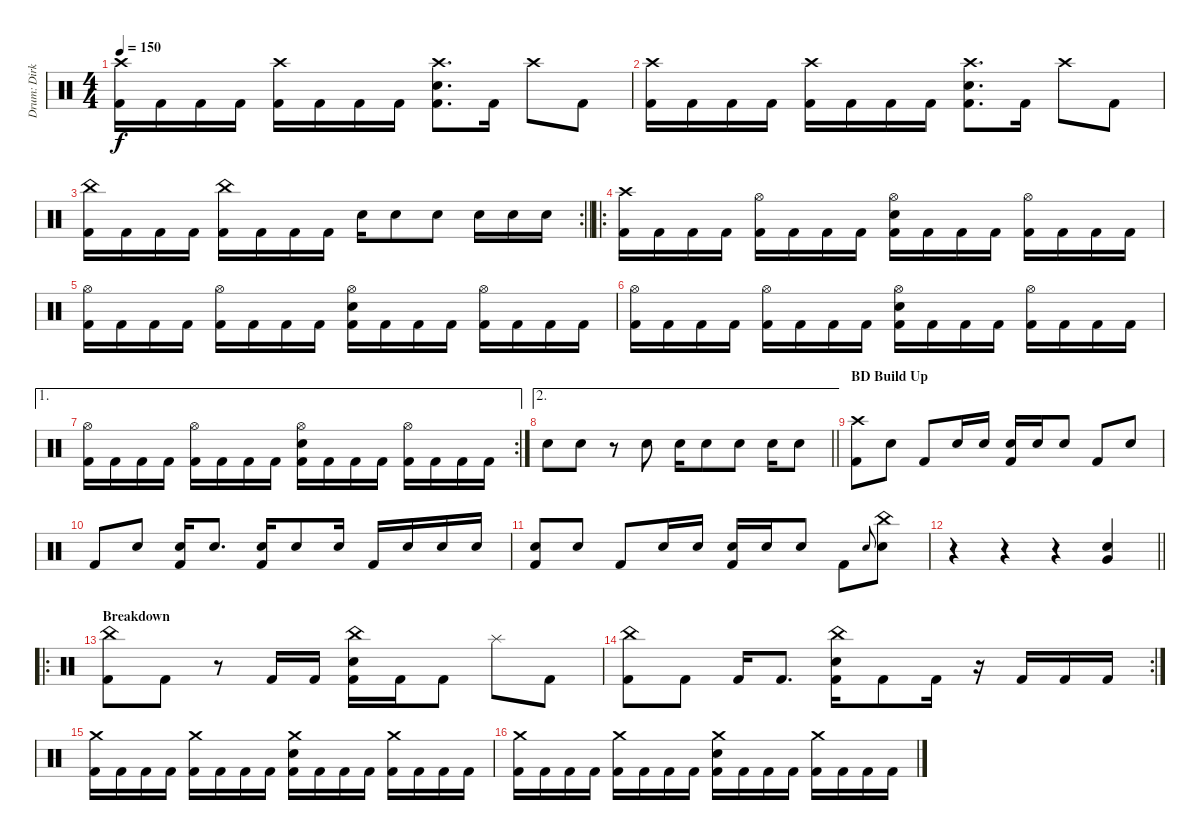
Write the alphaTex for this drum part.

\track ("Drum: Dirk" "Drum: Dirk") {instrument percussion}
\staff {score}
\articulation defaults
\ts (4 4)
\tempo 150
\clef neutral
\ks c
("Crash high (hit)" "Kick (hit) 2").16{dy f} "Kick (hit) 2".16 "Kick (hit) 2".16 "Kick (hit) 2".16 ("Crash high (hit)" "Kick (hit) 2").16 "Kick (hit) 2".16 "Kick (hit) 2".16 "Kick (hit) 2".16 ("Crash high (hit)" "Electric Snare (hit)" "Kick (hit) 2").8{d} "Kick (hit) 2".16 "Crash high (hit)".8 "Kick (hit) 2".8 |
("Crash high (hit)" "Kick (hit) 2").16 "Kick (hit) 2".16 "Kick (hit) 2".16 "Kick (hit) 2".16 ("Crash high (hit)" "Kick (hit) 2").16 "Kick (hit) 2".16 "Kick (hit) 2".16 "Kick (hit) 2".16 ("Crash high (hit)" "Electric Snare (hit)" "Kick (hit) 2").8{d} "Kick (hit) 2".16 "Crash high (hit)".8 "Kick (hit) 2".8 |
\rc 2
\barLineRight lightlight
("China (hit)" "Kick (hit) 2").16 "Kick (hit) 2".16 "Kick (hit) 2".16 "Kick (hit) 2".16 ("China (hit)" "Kick (hit) 2").16 "Kick (hit) 2".16 "Kick (hit) 2".16 "Kick (hit) 2".16 "Electric Snare (hit)".16 "Electric Snare (hit)".8 "Electric Snare (hit)".8 "Electric Snare (hit)".16 "Electric Snare (hit)".16 "Electric Snare (hit)".16 |
\ro
\section ("" "")
("Crash high (hit)" "Kick (hit) 2").16 "Kick (hit) 2".16 "Kick (hit) 2".16 "Kick (hit) 2".16 ("Hi-Hat (open)" "Kick (hit) 2").16 "Kick (hit) 2".16 "Kick (hit) 2".16 "Kick (hit) 2".16 ("Hi-Hat (open)" "Electric Snare (hit)" "Kick (hit) 2").16 "Kick (hit) 2".16 "Kick (hit) 2".16 "Kick (hit) 2".16 ("Hi-Hat (open)" "Kick (hit) 2").16 "Kick (hit) 2".16 "Kick (hit) 2".16 "Kick (hit) 2".16 |
("Hi-Hat (open)" "Kick (hit) 2").16 "Kick (hit) 2".16 "Kick (hit) 2".16 "Kick (hit) 2".16 ("Hi-Hat (open)" "Kick (hit) 2").16 "Kick (hit) 2".16 "Kick (hit) 2".16 "Kick (hit) 2".16 ("Hi-Hat (open)" "Electric Snare (hit)" "Kick (hit) 2").16 "Kick (hit) 2".16 "Kick (hit) 2".16 "Kick (hit) 2".16 ("Hi-Hat (open)" "Kick (hit) 2").16 "Kick (hit) 2".16 "Kick (hit) 2".16 "Kick (hit) 2".16 |
("Hi-Hat (open)" "Kick (hit) 2").16 "Kick (hit) 2".16 "Kick (hit) 2".16 "Kick (hit) 2".16 ("Hi-Hat (open)" "Kick (hit) 2").16 "Kick (hit) 2".16 "Kick (hit) 2".16 "Kick (hit) 2".16 ("Hi-Hat (open)" "Electric Snare (hit)" "Kick (hit) 2").16 "Kick (hit) 2".16 "Kick (hit) 2".16 "Kick (hit) 2".16 ("Hi-Hat (open)" "Kick (hit) 2").16 "Kick (hit) 2".16 "Kick (hit) 2".16 "Kick (hit) 2".16 |
\ae 1
\rc 2
("Hi-Hat (open)" "Kick (hit) 2").16 "Kick (hit) 2".16 "Kick (hit) 2".16 "Kick (hit) 2".16 ("Hi-Hat (open)" "Kick (hit) 2").16 "Kick (hit) 2".16 "Kick (hit) 2".16 "Kick (hit) 2".16 ("Hi-Hat (open)" "Electric Snare (hit)" "Kick (hit) 2").16 "Kick (hit) 2".16 "Kick (hit) 2".16 "Kick (hit) 2".16 ("Hi-Hat (open)" "Kick (hit) 2").16 "Kick (hit) 2".16 "Kick (hit) 2".16 "Kick (hit) 2".16 |
\ae 2
\barLineRight lightlight "Electric Snare (hit)".8 "Electric Snare (hit)".8
r.8 "Electric Snare (hit)".8 "Electric Snare (hit)".16 "Electric Snare (hit)".8 "Electric Snare (hit)".8 "Electric Snare (hit)".16 "Electric Snare (hit)".8 |
\section ("" "BD Build Up")
("Crash high (hit)" "Kick (hit) 2").8 "Electric Snare (hit)".8 "Kick (hit) 2".8 "Electric Snare (hit)".16 "Electric Snare (hit)".16 ("Electric Snare (hit)" "Kick (hit) 2").16 "Electric Snare (hit)".16 "Electric Snare (hit)".8 "Kick (hit) 2".8 "Electric Snare (hit)".8 |
"Kick (hit) 2".8 "Electric Snare (hit)".8 ("Electric Snare (hit)" "Kick (hit) 2").16 "Electric Snare (hit)".8{d} ("Electric Snare (hit)" "Kick (hit) 2").16 "Electric Snare (hit)".8 "Electric Snare (hit)".16 "Kick (hit) 2".16 "Electric Snare (hit)".16 "Electric Snare (hit)".16 "Electric Snare (hit)".16 |
("Electric Snare (hit)" "Kick (hit) 2").8 "Electric Snare (hit)".8 "Kick (hit) 2".8 "Electric Snare (hit)".16 "Electric Snare (hit)".16 ("Electric Snare (hit)" "Kick (hit) 2").16 "Electric Snare (hit)".16 "Electric Snare (hit)".8 "Kick (hit) 2".8 "Electric Snare (hit)".8{gr onbeat} ("China (hit)" "Electric Snare (hit)").8 |
\barLineRight lightlight
r.4 r.4 r.4 ("Electric Snare (hit)" "Very Low Tom (hit)").4 |
\ro
\section ("" "Breakdown")
("China (hit)" "Kick (hit) 2").8 "Kick (hit) 2".8 r.8 "Kick (hit) 2".16 "Kick (hit) 2".16 ("China (hit)" "Electric Snare (hit)" "Kick (hit) 2").16 "Kick (hit) 2".16 "Kick (hit) 2".8 "Splash (hit)".8 "Kick (hit) 2".8 |
\rc 2
("China (hit)" "Kick (hit) 2").8 "Kick (hit) 2".8 "Kick (hit) 2".16 "Kick (hit) 2".8{d} ("China (hit)" "Electric Snare (hit)" "Kick (hit) 2").16 "Kick (hit) 2".8 "Kick (hit) 2".16 r.16 "Kick (hit) 2".16 "Kick (hit) 2".16 "Kick (hit) 2".16 |
("Crash medium (hit)" "Kick (hit) 2").16 "Kick (hit) 2".16 "Kick (hit) 2".16 "Kick (hit) 2".16 ("Crash medium (hit)" "Kick (hit) 2").16 "Kick (hit) 2".16 "Kick (hit) 2".16 "Kick (hit) 2".16 ("Crash medium (hit)" "Electric Snare (hit)" "Kick (hit) 2").16 "Kick (hit) 2".16 "Kick (hit) 2".16 "Kick (hit) 2".16 ("Crash medium (hit)" "Kick (hit) 2").16 "Kick (hit) 2".16 "Kick (hit) 2".16 "Kick (hit) 2".16 |
("Crash medium (hit)" "Kick (hit) 2").16 "Kick (hit) 2".16 "Kick (hit) 2".16 "Kick (hit) 2".16 ("Crash medium (hit)" "Kick (hit) 2").16 "Kick (hit) 2".16 "Kick (hit) 2".16 "Kick (hit) 2".16 ("Crash medium (hit)" "Electric Snare (hit)" "Kick (hit) 2").16 "Kick (hit) 2".16 "Kick (hit) 2".16 "Kick (hit) 2".16 ("Crash medium (hit)" "Kick (hit) 2").16 "Kick (hit) 2".16 "Kick (hit) 2".16 "Kick (hit) 2".16
